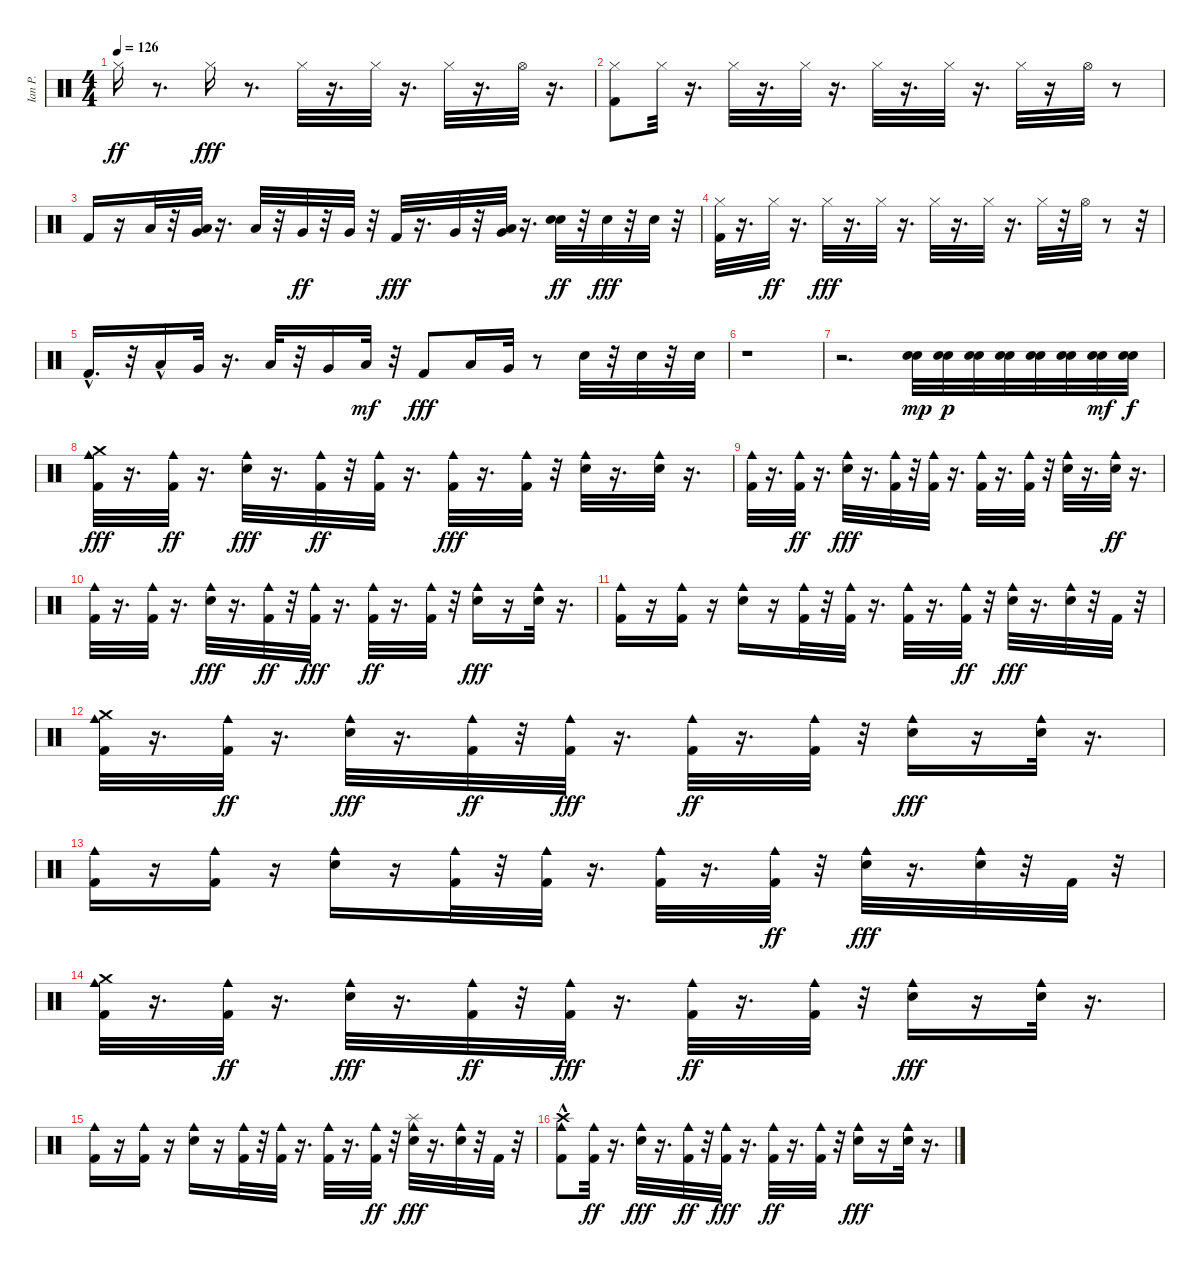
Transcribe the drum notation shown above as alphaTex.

\track ("Ian P." "Ian P.") {instrument percussion}
\staff {score}
\articulation defaults
\ts (4 4)
\tempo 126
\clef neutral
\ks c "Hi-Hat (closed)".16{dy ff}
r.8{d} "Hi-Hat (closed)".16{dy fff} r.8{d} "Hi-Hat (closed)".32 r.16{d} "Hi-Hat (closed)".32 r.16{d} "Hi-Hat (closed)".32 r.16{d} "Hi-Hat (open)".32 r.16{d} |
("Kick (hit) 2" "Hi-Hat (closed)").8 "Hi-Hat (closed)".32 r.16{d} "Hi-Hat (closed)".32 r.16{d} "Hi-Hat (closed)".32 r.16{d} "Hi-Hat (closed)".32 r.16{d} "Hi-Hat (closed)".32 r.16{d} "Hi-Hat (closed)".32 r.16 "Hi-Hat (open)".32 r.8 |
"Kick (hit) 2".16 r.16 "Low Tom (hit)".32 r.32 ("Low Tom (hit)" "Very Low Tom (hit)").32 r.16{d} "Low Tom (hit)".32 r.32 "Very Low Tom (hit)".32{dy ff} r.32 "Very Low Tom (hit)".32 r.32 "Kick (hit) 2".32{dy fff} r.16{d} "Very Low Tom (hit)".32 r.32 ("Very Low Tom (hit)" "Low Floor Tom (hit)").32 r.16{d} ("Snare (hit) 2" "Electric Snare (hit)").32{dy ff} r.32 "Snare (hit) 2".32{dy fff} r.32 "Snare (hit) 2".32 r.32 |
("Hi-Hat (closed)" "Kick (hit) 2").32 r.16{d} "Hi-Hat (closed)".32{dy ff} r.16{d} "Hi-Hat (closed)".32{dy fff} r.16{d} "Hi-Hat (closed)".32 r.16{d} "Hi-Hat (closed)".32 r.16{d} "Hi-Hat (closed)".32 r.16{d} "Hi-Hat (closed)".32 r.32 "Hi-Hat (open)".32 r.8 r.32 |
"Kick (hit) 2"{hac}.16{d} r.32 "Low Tom (hit)"{hac}.16 "Very Low Tom (hit)".32 r.16{d} "Low Floor Tom (hit)".32 r.32 "Very Low Tom (hit)".16 "Low Tom (hit)".32{dy mf} r.32 "Kick (hit) 2".8{dy fff} "Low Tom (hit)".16 "Very Low Tom (hit)".32 r.8 "Snare (hit) 2".32 r.32 "Snare (hit) 2".32 r.32 "Snare (hit) 2".32 |
r.1 |
r.2{d} ("Snare (hit) 2" "Snare (hit) 2").32{dy mp volume 16} ("Snare (hit) 2" "Snare (hit) 2").32{dy p} ("Snare (hit) 2" "Snare (hit) 2").32 ("Snare (hit) 2" "Snare (hit) 2").32 ("Snare (hit) 2" "Snare (hit) 2").32 ("Snare (hit) 2" "Snare (hit) 2").32 ("Snare (hit) 2" "Snare (hit) 2").32{dy mf} ("Snare (hit) 2" "Snare (hit) 2").32{dy f} |
("Kick (hit) 2" "Cowbell medium (hit)" "Crash medium (hit)").32{dy fff} r.16{d} ("Kick (hit) 2" "Cowbell medium (hit)").32{dy ff} r.16{d} ("Cowbell medium (hit)" "Snare (hit) 2").32{dy fff} r.16{d} ("Kick (hit) 2" "Cowbell medium (hit)").32{dy ff} r.32 ("Kick (hit) 2" "Cowbell medium (hit)").32 r.16{d} ("Cowbell medium (hit)" "Kick (hit) 2").32{dy fff} r.16{d} ("Kick (hit) 2" "Cowbell medium (hit)").32 r.32 ("Snare (hit) 2" "Cowbell medium (hit)").32 r.16{d} ("Cowbell medium (hit)" "Snare (hit) 2").32 r.16{d} |
("Cowbell medium (hit)" "Kick (hit) 2").32 r.16{d} ("Kick (hit) 2" "Cowbell medium (hit)").32{dy ff} r.16{d} ("Cowbell medium (hit)" "Snare (hit) 2").32{dy fff} r.16{d} ("Cowbell medium (hit)" "Kick (hit) 2").32 r.32 ("Cowbell medium (hit)" "Kick (hit) 2").32 r.16{d} ("Cowbell medium (hit)" "Kick (hit) 2").32 r.16{d} ("Kick (hit) 2" "Cowbell medium (hit)").32 r.32 ("Cowbell medium (hit)" "Snare (hit) 2").32 r.16{d} ("Snare (hit) 2" "Cowbell medium (hit)").32{dy ff} r.16{d} |
("Kick (hit) 2" "Cowbell medium (hit)").32 r.16{d} ("Kick (hit) 2" "Cowbell medium (hit)").32 r.16{d} ("Cowbell medium (hit)" "Snare (hit) 2").32{dy fff} r.16{d} ("Cowbell medium (hit)" "Kick (hit) 2").32{dy ff} r.32 ("Cowbell medium (hit)" "Kick (hit) 2").32{dy fff} r.16{d} ("Kick (hit) 2" "Cowbell medium (hit)").32{dy ff} r.16{d} ("Cowbell medium (hit)" "Kick (hit) 2").32 r.32 ("Cowbell medium (hit)" "Snare (hit) 2").16{dy fff} r.16 ("Cowbell medium (hit)" "Snare (hit) 2").32 r.16{d} |
("Cowbell medium (hit)" "Kick (hit) 2").16 r.16 ("Cowbell medium (hit)" "Kick (hit) 2").16 r.16 ("Cowbell medium (hit)" "Snare (hit) 2").16 r.16 ("Cowbell medium (hit)" "Kick (hit) 2").32 r.32 ("Cowbell medium (hit)" "Kick (hit) 2").32 r.16{d} ("Kick (hit) 2" "Cowbell medium (hit)").32 r.16{d} ("Kick (hit) 2" "Cowbell medium (hit)").32{dy ff} r.32 ("Snare (hit) 2" "Cowbell medium (hit)").32{dy fff} r.16{d} ("Snare (hit) 2" "Cowbell medium (hit)").32 r.32 "Kick (hit) 2".32 r.32 |
("Kick (hit) 2" "Cowbell medium (hit)" "Crash medium (hit)").32 r.16{d} ("Kick (hit) 2" "Cowbell medium (hit)").32{dy ff} r.16{d} ("Cowbell medium (hit)" "Snare (hit) 2").32{dy fff} r.16{d} ("Cowbell medium (hit)" "Kick (hit) 2").32{dy ff} r.32 ("Cowbell medium (hit)" "Kick (hit) 2").32{dy fff} r.16{d} ("Kick (hit) 2" "Cowbell medium (hit)").32{dy ff} r.16{d} ("Cowbell medium (hit)" "Kick (hit) 2").32 r.32 ("Cowbell medium (hit)" "Snare (hit) 2").16{dy fff} r.16 ("Cowbell medium (hit)" "Snare (hit) 2").32 r.16{d} |
("Cowbell medium (hit)" "Kick (hit) 2").16 r.16 ("Cowbell medium (hit)" "Kick (hit) 2").16 r.16 ("Cowbell medium (hit)" "Snare (hit) 2").16 r.16 ("Cowbell medium (hit)" "Kick (hit) 2").32 r.32 ("Cowbell medium (hit)" "Kick (hit) 2").32 r.16{d} ("Kick (hit) 2" "Cowbell medium (hit)").32 r.16{d} ("Kick (hit) 2" "Cowbell medium (hit)").32{dy ff} r.32 ("Snare (hit) 2" "Cowbell medium (hit)").32{dy fff} r.16{d} ("Snare (hit) 2" "Cowbell medium (hit)").32 r.32 "Kick (hit) 2".32 r.32 |
("Kick (hit) 2" "Cowbell medium (hit)" "Crash medium (hit)").32 r.16{d} ("Kick (hit) 2" "Cowbell medium (hit)").32{dy ff} r.16{d} ("Cowbell medium (hit)" "Snare (hit) 2").32{dy fff} r.16{d} ("Cowbell medium (hit)" "Kick (hit) 2").32{dy ff} r.32 ("Cowbell medium (hit)" "Kick (hit) 2").32{dy fff} r.16{d} ("Kick (hit) 2" "Cowbell medium (hit)").32{dy ff} r.16{d} ("Cowbell medium (hit)" "Kick (hit) 2").32 r.32 ("Cowbell medium (hit)" "Snare (hit) 2").16{dy fff} r.16 ("Cowbell medium (hit)" "Snare (hit) 2").32 r.16{d} |
("Cowbell medium (hit)" "Kick (hit) 2").16 r.16 ("Cowbell medium (hit)" "Kick (hit) 2").16 r.16 ("Cowbell medium (hit)" "Snare (hit) 2").16 r.16 ("Cowbell medium (hit)" "Kick (hit) 2").32 r.32 ("Cowbell medium (hit)" "Kick (hit) 2").32 r.16{d} ("Kick (hit) 2" "Cowbell medium (hit)").32 r.16{d} ("Kick (hit) 2" "Cowbell medium (hit)").32{dy ff} r.32 ("Splash (hit)" "Snare (hit) 2" "Cowbell medium (hit)").32{dy fff} r.16{d} ("Snare (hit) 2" "Cowbell medium (hit)").32 r.32 "Kick (hit) 2".32 r.32 |
("Kick (hit) 2" "Cowbell medium (hit)" "Crash high (hit)"{hac}).8 ("Kick (hit) 2" "Cowbell medium (hit)").32{dy ff} r.16{d} ("Cowbell medium (hit)" "Snare (hit) 2").32{dy fff} r.16{d} ("Cowbell medium (hit)" "Kick (hit) 2").32{dy ff} r.32 ("Cowbell medium (hit)" "Kick (hit) 2").32{dy fff} r.16{d} ("Kick (hit) 2" "Cowbell medium (hit)").32{dy ff} r.16{d} ("Cowbell medium (hit)" "Kick (hit) 2").32 r.32 ("Cowbell medium (hit)" "Snare (hit) 2").16{dy fff} r.16 ("Cowbell medium (hit)" "Snare (hit) 2").32 r.16{d}
